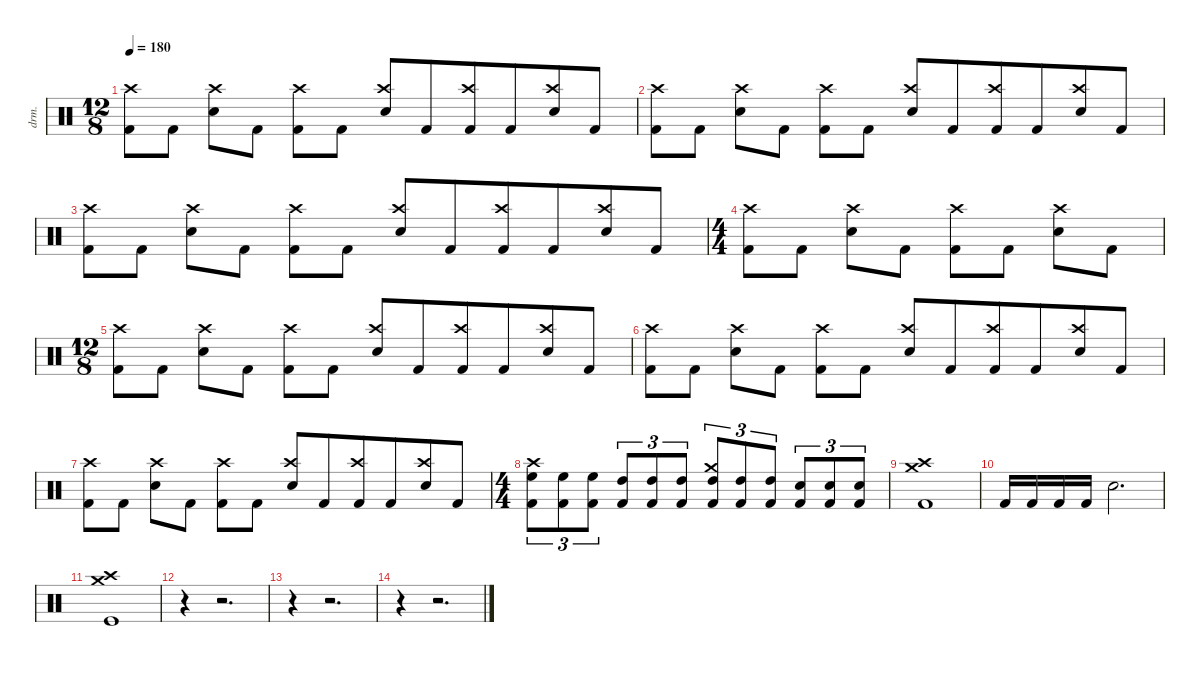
\defaultSystemsLayout 4
\hideDynamics
\bracketExtendMode nobrackets
\otherSystemsTrackNameOrientation horizontal
\track ("Joosep" "drm.") {mute instrument percussion}
\staff {score}
\articulation defaults
\ts (12 8)
\beaming (8 2 2 2 6)
\tempo 180
\clef neutral
\ks c
("Crash high (hit)" "Kick (hit) 2").8{dy f beam Down} "Kick (hit) 2".8{beam Down} ("Crash high (hit)" "Snare (hit) 2").8{beam Down} "Kick (hit) 2".8{beam Down} ("Crash high (hit)" "Kick (hit) 2").8{beam Down} "Kick (hit) 2".8{beam Down} ("Crash high (hit)" "Snare (hit) 2").8{beam Up} "Kick (hit) 2".8{beam Up} ("Crash high (hit)" "Kick (hit) 2").8{beam Up} "Kick (hit) 2".8{beam Up} ("Crash high (hit)" "Snare (hit) 2").8{beam Up} "Kick (hit) 2".8{beam Up} |
("Crash high (hit)" "Kick (hit) 2").8{beam Down} "Kick (hit) 2".8{beam Down} ("Crash high (hit)" "Snare (hit) 2").8{beam Down} "Kick (hit) 2".8{beam Down} ("Crash high (hit)" "Kick (hit) 2").8{beam Down} "Kick (hit) 2".8{beam Down} ("Crash high (hit)" "Snare (hit) 2").8{beam Up} "Kick (hit) 2".8{beam Up} ("Crash high (hit)" "Kick (hit) 2").8{beam Up} "Kick (hit) 2".8{beam Up} ("Crash high (hit)" "Snare (hit) 2").8{beam Up} "Kick (hit) 2".8{beam Up} |
("Crash high (hit)" "Kick (hit) 2").8{beam Down} "Kick (hit) 2".8{beam Down} ("Crash high (hit)" "Snare (hit) 2").8{beam Down} "Kick (hit) 2".8{beam Down} ("Crash high (hit)" "Kick (hit) 2").8{beam Down} "Kick (hit) 2".8{beam Down} ("Crash high (hit)" "Snare (hit) 2").8{beam Up} "Kick (hit) 2".8{beam Up} ("Crash high (hit)" "Kick (hit) 2").8{beam Up} "Kick (hit) 2".8{beam Up} ("Crash high (hit)" "Snare (hit) 2").8{beam Up} "Kick (hit) 2".8{beam Up} |
\ts (4 4)
\beaming (8 2 2 2 2)
("Crash high (hit)" "Kick (hit) 2").8{beam Down} "Kick (hit) 2".8{beam Down} ("Crash high (hit)" "Snare (hit) 2").8{beam Down} "Kick (hit) 2".8{beam Down} ("Crash high (hit)" "Kick (hit) 2").8{beam Down} "Kick (hit) 2".8{beam Down} ("Crash high (hit)" "Snare (hit) 2").8{beam Down} "Kick (hit) 2".8{beam Down} |
\ts (12 8)
\beaming (8 2 2 2 6)
("Crash high (hit)" "Kick (hit) 2").8{beam Down} "Kick (hit) 2".8{beam Down} ("Crash high (hit)" "Snare (hit) 2").8{beam Down} "Kick (hit) 2".8{beam Down} ("Crash high (hit)" "Kick (hit) 2").8{beam Down} "Kick (hit) 2".8{beam Down} ("Crash high (hit)" "Snare (hit) 2").8{beam Up} "Kick (hit) 2".8{beam Up} ("Crash high (hit)" "Kick (hit) 2").8{beam Up} "Kick (hit) 2".8{beam Up} ("Crash high (hit)" "Snare (hit) 2").8{beam Up} "Kick (hit) 2".8{beam Up} |
("Crash high (hit)" "Kick (hit) 2").8{beam Down} "Kick (hit) 2".8{beam Down} ("Crash high (hit)" "Snare (hit) 2").8{beam Down} "Kick (hit) 2".8{beam Down} ("Crash high (hit)" "Kick (hit) 2").8{beam Down} "Kick (hit) 2".8{beam Down} ("Crash high (hit)" "Snare (hit) 2").8{beam Up} "Kick (hit) 2".8{beam Up} ("Crash high (hit)" "Kick (hit) 2").8{beam Up} "Kick (hit) 2".8{beam Up} ("Crash high (hit)" "Snare (hit) 2").8{beam Up} "Kick (hit) 2".8{beam Up} |
("Crash high (hit)" "Kick (hit) 2").8{beam Down} "Kick (hit) 2".8{beam Down} ("Crash high (hit)" "Snare (hit) 2").8{beam Down} "Kick (hit) 2".8{beam Down} ("Crash high (hit)" "Kick (hit) 2").8{beam Down} "Kick (hit) 2".8{beam Down} ("Crash high (hit)" "Snare (hit) 2").8{beam Up} "Kick (hit) 2".8{beam Up} ("Crash high (hit)" "Kick (hit) 2").8{beam Up} "Kick (hit) 2".8{beam Up} ("Crash high (hit)" "Snare (hit) 2").8{beam Up} "Kick (hit) 2".8{beam Up} |
\ts (4 4)
\beaming (8 2 2 2 2)
("High Floor Tom (hit)" "Kick (hit) 2" "Crash high (hit)").8{tu (3 2) dy mf beam Down} ("High Floor Tom (hit)" "Kick (hit) 2").8{tu (3 2) beam Down} ("High Floor Tom (hit)" "Kick (hit) 2").8{tu (3 2) beam Down} ("High Tom (hit)" "Kick (hit) 2").8{tu (3 2) beam Up} ("High Tom (hit)" "Kick (hit) 2").8{tu (3 2) beam Up} ("High Tom (hit)" "Kick (hit) 2").8{tu (3 2) beam Up} ("High Tom (hit)" "Kick (hit) 2" "Crash medium (hit)").8{tu (3 2) beam Up} ("High Tom (hit)" "Kick (hit) 2").8{tu (3 2) beam Up} ("High Tom (hit)" "Kick (hit) 2").8{tu (3 2) beam Up} ("Snare (hit) 2" "Kick (hit) 2").8{tu (3 2) beam Up} ("Snare (hit) 2" "Kick (hit) 2").8{tu (3 2) beam Up} ("Snare (hit) 2" "Kick (hit) 2").8{tu (3 2) beam Up} |
("Kick (hit) 2" "Crash high (hit)" "Crash medium (hit)").1{beam Down} |
"Kick (hit) 2".16{beam Up} "Kick (hit) 2".16{beam Up} "Kick (hit) 2".16{beam Up} "Kick (hit) 2".16{beam Up} "Snare (hit) 2".2{d beam Down} |
("Kick (hit)" "Crash high (hit)" "Crash medium (hit)").1{beam Down} |
r.4{beam Down} r.2{d beam Down} |
r.4{beam Down} r.2{d beam Down} |
r.4{beam Down} r.2{d beam Down}
